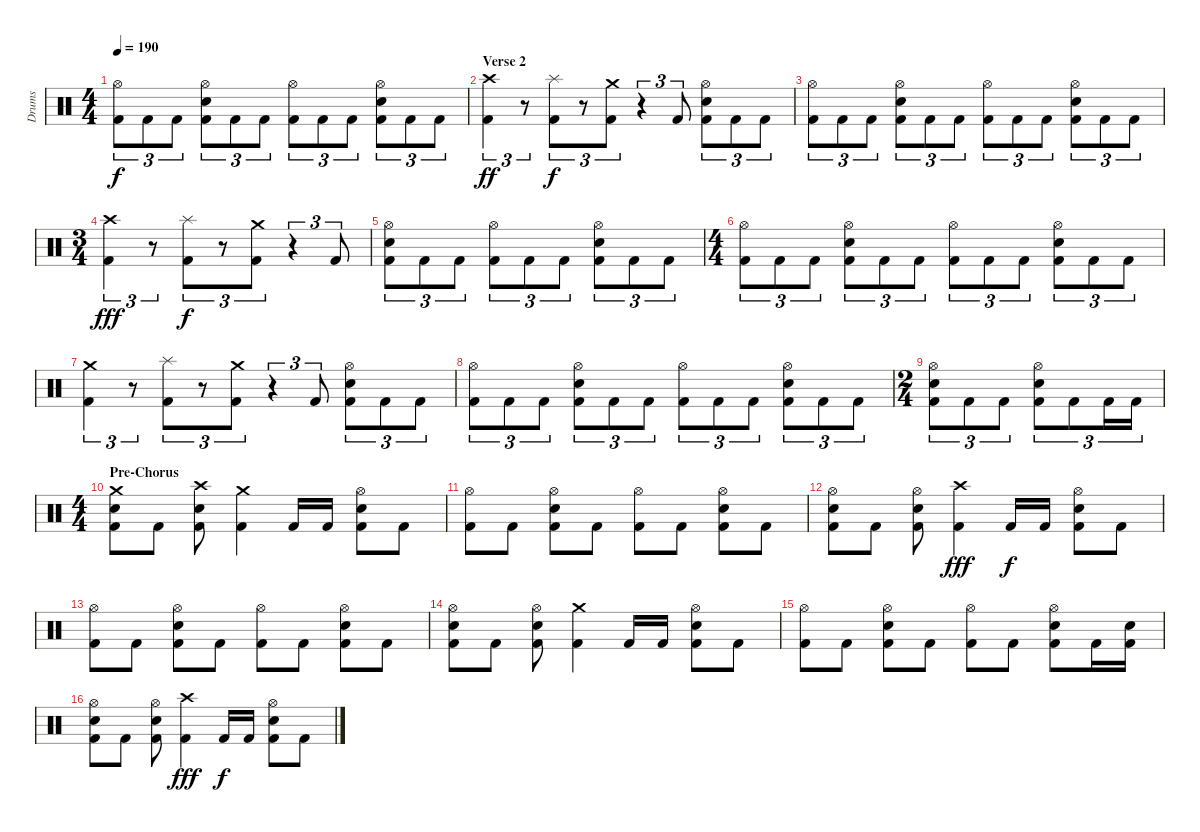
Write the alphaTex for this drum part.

\track ("Drums" "Drums") {instrument percussion}
\staff {score}
\articulation defaults
\ts (4 4)
\tempo 190
\clef neutral
\ks c
("Hi-Hat (open)" "Kick (hit) 2").8{tu (3 2) dy f} "Kick (hit) 2".8{tu (3 2)} "Kick (hit) 2".8{tu (3 2)} ("Hi-Hat (open)" "Snare (hit) 2" "Kick (hit) 2").8{tu (3 2)} "Kick (hit) 2".8{tu (3 2)} "Kick (hit) 2".8{tu (3 2)} ("Hi-Hat (open)" "Kick (hit) 2").8{tu (3 2)} "Kick (hit) 2".8{tu (3 2)} "Kick (hit) 2".8{tu (3 2)} ("Hi-Hat (open)" "Snare (hit) 2" "Kick (hit) 2").8{tu (3 2)} "Kick (hit) 2".8{tu (3 2)} "Kick (hit) 2".8{tu (3 2)} |
\section ("" "Verse 2")
("Crash high (hit)" "Kick (hit) 2").4{tu (3 2) dy ff} r.8{tu (3 2)} ("Splash (hit)" "Kick (hit) 2").8{tu (3 2) dy f} r.8{tu (3 2)} ("Crash medium (hit)" "Kick (hit) 2").8{tu (3 2)} r.4{tu (3 2)} "Kick (hit) 2".8{tu (3 2)} ("Hi-Hat (open)" "Snare (hit) 2" "Kick (hit) 2").8{tu (3 2)} "Kick (hit) 2".8{tu (3 2)} "Kick (hit) 2".8{tu (3 2)} |
("Hi-Hat (open)" "Kick (hit) 2").8{tu (3 2)} "Kick (hit) 2".8{tu (3 2)} "Kick (hit) 2".8{tu (3 2)} ("Hi-Hat (open)" "Snare (hit) 2" "Kick (hit) 2").8{tu (3 2)} "Kick (hit) 2".8{tu (3 2)} "Kick (hit) 2".8{tu (3 2)} ("Hi-Hat (open)" "Kick (hit) 2").8{tu (3 2)} "Kick (hit) 2".8{tu (3 2)} "Kick (hit) 2".8{tu (3 2)} ("Hi-Hat (open)" "Snare (hit) 2" "Kick (hit) 2").8{tu (3 2)} "Kick (hit) 2".8{tu (3 2)} "Kick (hit) 2".8{tu (3 2)} |
\ts (3 4)
("Crash high (hit)" "Kick (hit) 2").4{tu (3 2) dy fff} r.8{tu (3 2)} ("Splash (hit)" "Kick (hit) 2").8{tu (3 2) dy f} r.8{tu (3 2)} ("Crash medium (hit)" "Kick (hit) 2").8{tu (3 2)} r.4{tu (3 2)} "Kick (hit) 2".8{tu (3 2)} |
("Hi-Hat (open)" "Snare (hit) 2" "Kick (hit) 2").8{tu (3 2)} "Kick (hit) 2".8{tu (3 2)} "Kick (hit) 2".8{tu (3 2)} ("Hi-Hat (open)" "Kick (hit) 2").8{tu (3 2)} "Kick (hit) 2".8{tu (3 2)} "Kick (hit) 2".8{tu (3 2)} ("Hi-Hat (open)" "Snare (hit) 2" "Kick (hit) 2").8{tu (3 2)} "Kick (hit) 2".8{tu (3 2)} "Kick (hit) 2".8{tu (3 2)} |
\ts (4 4)
("Hi-Hat (open)" "Kick (hit) 2").8{tu (3 2)} "Kick (hit) 2".8{tu (3 2)} "Kick (hit) 2".8{tu (3 2)} ("Hi-Hat (open)" "Snare (hit) 2" "Kick (hit) 2").8{tu (3 2)} "Kick (hit) 2".8{tu (3 2)} "Kick (hit) 2".8{tu (3 2)} ("Hi-Hat (open)" "Kick (hit) 2").8{tu (3 2)} "Kick (hit) 2".8{tu (3 2)} "Kick (hit) 2".8{tu (3 2)} ("Hi-Hat (open)" "Snare (hit) 2" "Kick (hit) 2").8{tu (3 2)} "Kick (hit) 2".8{tu (3 2)} "Kick (hit) 2".8{tu (3 2)} |
("Crash medium (hit)" "Kick (hit) 2").4{tu (3 2)} r.8{tu (3 2)} ("Splash (hit)" "Kick (hit) 2").8{tu (3 2)} r.8{tu (3 2)} ("Crash medium (hit)" "Kick (hit) 2").8{tu (3 2)} r.4{tu (3 2)} "Kick (hit) 2".8{tu (3 2)} ("Hi-Hat (open)" "Snare (hit) 2" "Kick (hit) 2").8{tu (3 2)} "Kick (hit) 2".8{tu (3 2)} "Kick (hit) 2".8{tu (3 2)} |
("Hi-Hat (open)" "Kick (hit) 2").8{tu (3 2)} "Kick (hit) 2".8{tu (3 2)} "Kick (hit) 2".8{tu (3 2)} ("Hi-Hat (open)" "Snare (hit) 2" "Kick (hit) 2").8{tu (3 2)} "Kick (hit) 2".8{tu (3 2)} "Kick (hit) 2".8{tu (3 2)} ("Hi-Hat (open)" "Kick (hit) 2").8{tu (3 2)} "Kick (hit) 2".8{tu (3 2)} "Kick (hit) 2".8{tu (3 2)} ("Hi-Hat (open)" "Snare (hit) 2" "Kick (hit) 2").8{tu (3 2)} "Kick (hit) 2".8{tu (3 2)} "Kick (hit) 2".8{tu (3 2)} |
\ts (2 4)
("Hi-Hat (open)" "Snare (hit) 2" "Kick (hit) 2").8{tu (3 2)} "Kick (hit) 2".8{tu (3 2)} "Kick (hit) 2".8{tu (3 2)} ("Hi-Hat (open)" "Snare (hit) 2" "Kick (hit) 2").8{tu (3 2)} "Kick (hit) 2".8{tu (3 2)} "Kick (hit) 2".16{tu (3 2)} "Kick (hit) 2".16{tu (3 2)} |
\ts (4 4)
\section ("" "Pre-Chorus")
("Crash medium (hit)" "Snare (hit) 2" "Kick (hit) 2").8 "Kick (hit) 2".8 ("Crash high (hit)" "Snare (hit) 2" "Kick (hit) 2").8 ("Crash medium (hit)" "Kick (hit) 2").4 "Kick (hit) 2".16 "Kick (hit) 2".16 ("Hi-Hat (open)" "Snare (hit) 2" "Kick (hit) 2").8 "Kick (hit) 2".8 |
("Hi-Hat (open)" "Kick (hit) 2").8 "Kick (hit) 2".8 ("Hi-Hat (open)" "Snare (hit) 2" "Kick (hit) 2").8 "Kick (hit) 2".8 ("Hi-Hat (open)" "Kick (hit) 2").8 "Kick (hit) 2".8 ("Hi-Hat (open)" "Snare (hit) 2" "Kick (hit) 2").8 "Kick (hit) 2".8 |
("Hi-Hat (open)" "Snare (hit) 2" "Kick (hit) 2").8 "Kick (hit) 2".8 ("Hi-Hat (open)" "Snare (hit) 2" "Kick (hit) 2").8 ("Crash high (hit)" "Kick (hit) 2").4{dy fff} "Kick (hit) 2".16{dy f} "Kick (hit) 2".16 ("Hi-Hat (open)" "Snare (hit) 2" "Kick (hit) 2").8 "Kick (hit) 2".8 |
("Hi-Hat (open)" "Kick (hit) 2").8 "Kick (hit) 2".8 ("Hi-Hat (open)" "Snare (hit) 2" "Kick (hit) 2").8 "Kick (hit) 2".8 ("Hi-Hat (open)" "Kick (hit) 2").8 "Kick (hit) 2".8 ("Hi-Hat (open)" "Snare (hit) 2" "Kick (hit) 2").8 "Kick (hit) 2".8 |
("Hi-Hat (open)" "Snare (hit) 2" "Kick (hit) 2").8 "Kick (hit) 2".8 ("Hi-Hat (open)" "Snare (hit) 2" "Kick (hit) 2").8 ("Crash medium (hit)" "Kick (hit) 2").4 "Kick (hit) 2".16 "Kick (hit) 2".16 ("Hi-Hat (open)" "Snare (hit) 2" "Kick (hit) 2").8 "Kick (hit) 2".8 |
("Hi-Hat (open)" "Kick (hit) 2").8 "Kick (hit) 2".8 ("Hi-Hat (open)" "Snare (hit) 2" "Kick (hit) 2").8 "Kick (hit) 2".8 ("Hi-Hat (open)" "Kick (hit) 2").8 "Kick (hit) 2".8 ("Hi-Hat (open)" "Snare (hit) 2" "Kick (hit) 2").8 "Kick (hit) 2".16 ("Snare (hit) 2" "Kick (hit) 2").16 |
("Hi-Hat (open)" "Snare (hit) 2" "Kick (hit) 2").8 "Kick (hit) 2".8 ("Hi-Hat (open)" "Snare (hit) 2" "Kick (hit) 2").8 ("Crash high (hit)" "Kick (hit) 2").4{dy fff} "Kick (hit) 2".16{dy f} "Kick (hit) 2".16 ("Hi-Hat (open)" "Snare (hit) 2" "Kick (hit) 2").8 "Kick (hit) 2".8
